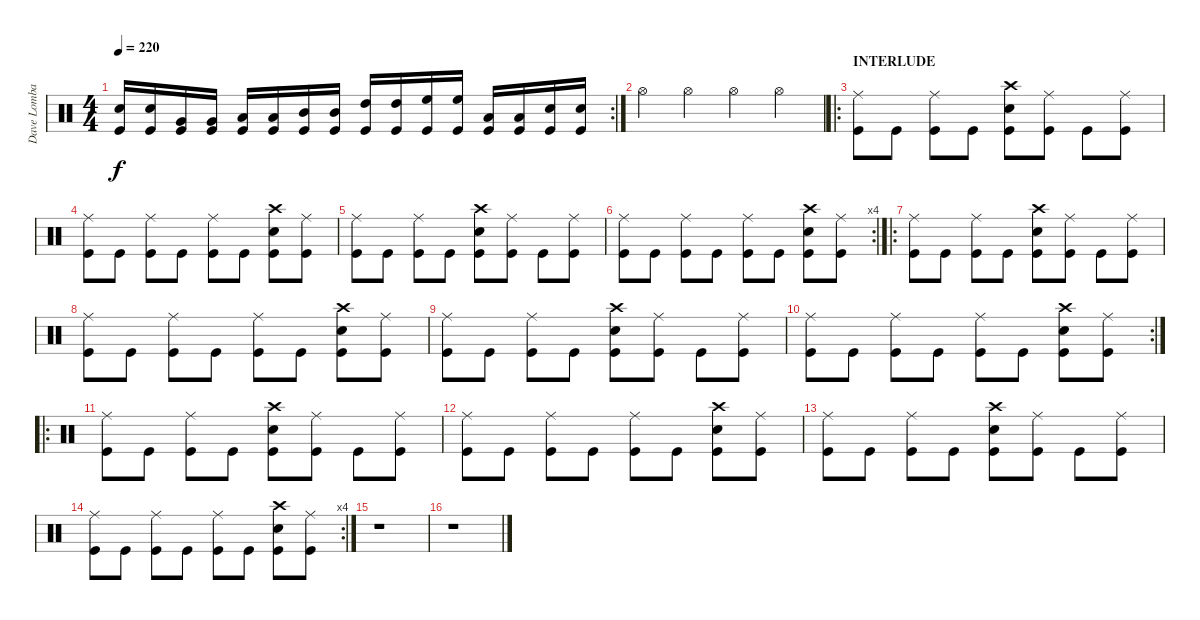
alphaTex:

\track ("Dave Lombardo" "Dave Lomba") {instrument percussion}
\staff {score}
\articulation defaults
\rc 2
\ts (4 4)
\tempo 220
\clef neutral
\ks c
("Kick (hit)" "Snare (hit) 2").16{dy f} ("Kick (hit)" "Snare (hit) 2").16 ("Kick (hit)" "Very Low Tom (hit)").16 ("Kick (hit)" "Very Low Tom (hit)").16 ("Kick (hit)" "Low Tom (hit)").16 ("Kick (hit)" "Low Tom (hit)").16 ("Kick (hit)" "Mid Tom (hit)").16 ("Kick (hit)" "Mid Tom (hit)").16 ("Kick (hit)" "High Tom (hit)").16 ("Kick (hit)" "High Tom (hit)").16 ("Kick (hit)" "High Floor Tom (hit)").16 ("Kick (hit)" "High Floor Tom (hit)").16 ("Kick (hit)" "Low Floor Tom (hit)").16 ("Kick (hit)" "Low Floor Tom (hit)").16 ("Kick (hit)" "Snare (hit) 2").16 ("Kick (hit)" "Snare (hit) 2").16 |
"Hi-Hat (open)".4 "Hi-Hat (open)".4 "Hi-Hat (open)".4 "Hi-Hat (open)".4 |
\ro
\section ("" "INTERLUDE")
("Ride (middle)" "Kick (hit)").8 "Kick (hit)".8 ("Ride (middle)" "Kick (hit)").8 "Kick (hit)".8 ("Crash high (hit)" "Snare (hit) 2" "Kick (hit)").8 ("Ride (middle)" "Kick (hit)").8 "Kick (hit)".8 ("Ride (middle)" "Kick (hit)").8 |
("Ride (middle)" "Kick (hit)").8 "Kick (hit)".8 ("Ride (middle)" "Kick (hit)").8 "Kick (hit)".8 ("Ride (middle)" "Kick (hit)").8 "Kick (hit)".8 ("Snare (hit) 2" "Crash high (hit)" "Kick (hit)").8 ("Ride (middle)" "Kick (hit)").8 |
("Ride (middle)" "Kick (hit)").8 "Kick (hit)".8 ("Ride (middle)" "Kick (hit)").8 "Kick (hit)".8 ("Crash high (hit)" "Snare (hit) 2" "Kick (hit)").8 ("Ride (middle)" "Kick (hit)").8 "Kick (hit)".8 ("Ride (middle)" "Kick (hit)").8 |
\rc 4
("Ride (middle)" "Kick (hit)").8 "Kick (hit)".8 ("Ride (middle)" "Kick (hit)").8 "Kick (hit)".8 ("Ride (middle)" "Kick (hit)").8 "Kick (hit)".8 ("Snare (hit) 2" "Crash high (hit)" "Kick (hit)").8 ("Ride (middle)" "Kick (hit)").8 |
\ro
("Ride (middle)" "Kick (hit)").8 "Kick (hit)".8 ("Ride (middle)" "Kick (hit)").8 "Kick (hit)".8 ("Crash high (hit)" "Snare (hit) 2" "Kick (hit)").8 ("Ride (middle)" "Kick (hit)").8 "Kick (hit)".8 ("Ride (middle)" "Kick (hit)").8 |
("Ride (middle)" "Kick (hit)").8 "Kick (hit)".8 ("Ride (middle)" "Kick (hit)").8 "Kick (hit)".8 ("Ride (middle)" "Kick (hit)").8 "Kick (hit)".8 ("Snare (hit) 2" "Crash high (hit)" "Kick (hit)").8 ("Ride (middle)" "Kick (hit)").8 |
("Ride (middle)" "Kick (hit)").8 "Kick (hit)".8 ("Ride (middle)" "Kick (hit)").8 "Kick (hit)".8 ("Crash high (hit)" "Snare (hit) 2" "Kick (hit)").8 ("Ride (middle)" "Kick (hit)").8 "Kick (hit)".8 ("Ride (middle)" "Kick (hit)").8 |
\rc 2
("Ride (middle)" "Kick (hit)").8 "Kick (hit)".8 ("Ride (middle)" "Kick (hit)").8 "Kick (hit)".8 ("Ride (middle)" "Kick (hit)").8 "Kick (hit)".8 ("Snare (hit) 2" "Crash high (hit)" "Kick (hit)").8 ("Ride (middle)" "Kick (hit)").8 |
\ro
("Ride (middle)" "Kick (hit)").8 "Kick (hit)".8 ("Ride (middle)" "Kick (hit)").8 "Kick (hit)".8 ("Crash high (hit)" "Snare (hit) 2" "Kick (hit)").8 ("Ride (middle)" "Kick (hit)").8 "Kick (hit)".8 ("Ride (middle)" "Kick (hit)").8 |
("Ride (middle)" "Kick (hit)").8 "Kick (hit)".8 ("Ride (middle)" "Kick (hit)").8 "Kick (hit)".8 ("Ride (middle)" "Kick (hit)").8 "Kick (hit)".8 ("Snare (hit) 2" "Crash high (hit)" "Kick (hit)").8 ("Ride (middle)" "Kick (hit)").8 |
("Ride (middle)" "Kick (hit)").8 "Kick (hit)".8 ("Ride (middle)" "Kick (hit)").8 "Kick (hit)".8 ("Crash high (hit)" "Snare (hit) 2" "Kick (hit)").8 ("Ride (middle)" "Kick (hit)").8 "Kick (hit)".8 ("Ride (middle)" "Kick (hit)").8 |
\rc 4
("Ride (middle)" "Kick (hit)").8 "Kick (hit)".8 ("Ride (middle)" "Kick (hit)").8 "Kick (hit)".8 ("Ride (middle)" "Kick (hit)").8 "Kick (hit)".8 ("Snare (hit) 2" "Crash high (hit)" "Kick (hit)").8 ("Ride (middle)" "Kick (hit)").8 |
r.1 |
r.1
